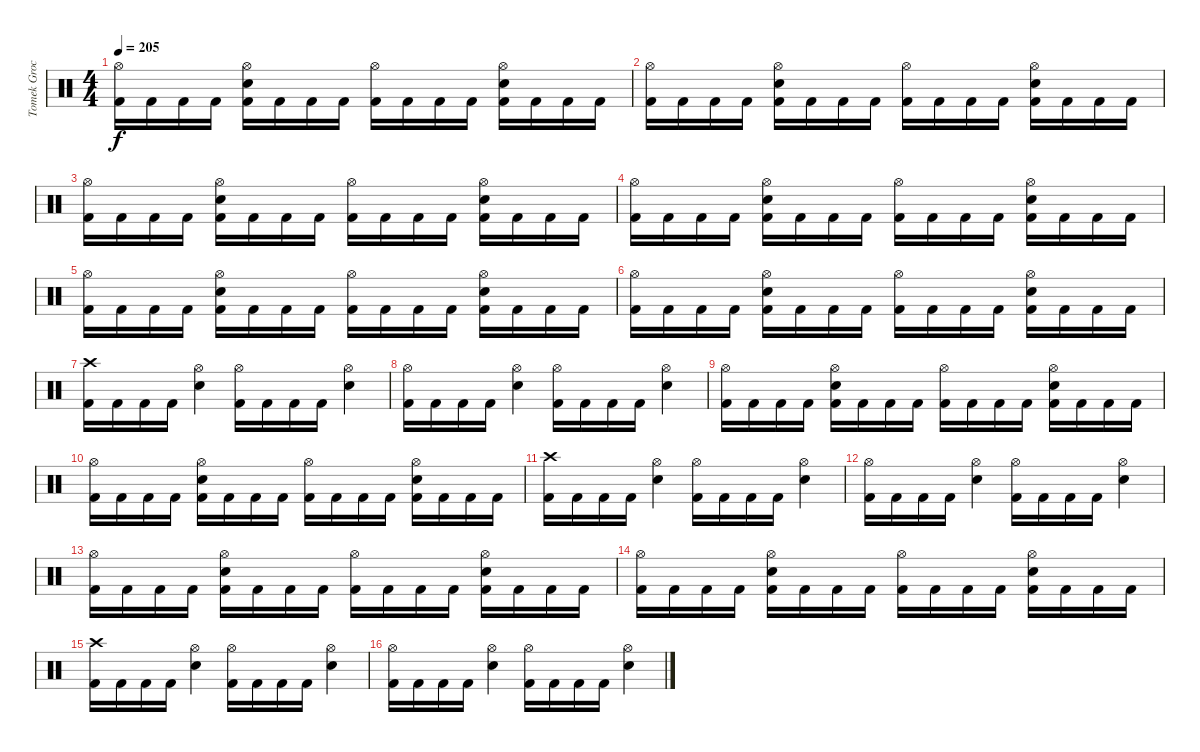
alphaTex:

\track ("Tomek Grochowski" "Tomek Groc") {instrument percussion}
\staff {score}
\articulation defaults
\ts (4 4)
\tempo 205
\clef neutral
\ks c
("Hi-Hat (open)" "Kick (hit) 2").16{dy f} "Kick (hit) 2".16 "Kick (hit) 2".16 "Kick (hit) 2".16 ("Hi-Hat (open)" "Electric Snare (hit)" "Kick (hit) 2").16 "Kick (hit) 2".16 "Kick (hit) 2".16 "Kick (hit) 2".16 ("Hi-Hat (open)" "Kick (hit) 2").16 "Kick (hit) 2".16 "Kick (hit) 2".16 "Kick (hit) 2".16 ("Hi-Hat (open)" "Electric Snare (hit)" "Kick (hit) 2").16 "Kick (hit) 2".16 "Kick (hit) 2".16 "Kick (hit) 2".16 |
("Hi-Hat (open)" "Kick (hit) 2").16 "Kick (hit) 2".16 "Kick (hit) 2".16 "Kick (hit) 2".16 ("Hi-Hat (open)" "Electric Snare (hit)" "Kick (hit) 2").16 "Kick (hit) 2".16 "Kick (hit) 2".16 "Kick (hit) 2".16 ("Hi-Hat (open)" "Kick (hit) 2").16 "Kick (hit) 2".16 "Kick (hit) 2".16 "Kick (hit) 2".16 ("Hi-Hat (open)" "Electric Snare (hit)" "Kick (hit) 2").16 "Kick (hit) 2".16 "Kick (hit) 2".16 "Kick (hit) 2".16 |
("Hi-Hat (open)" "Kick (hit) 2").16 "Kick (hit) 2".16 "Kick (hit) 2".16 "Kick (hit) 2".16 ("Hi-Hat (open)" "Electric Snare (hit)" "Kick (hit) 2").16 "Kick (hit) 2".16 "Kick (hit) 2".16 "Kick (hit) 2".16 ("Hi-Hat (open)" "Kick (hit) 2").16 "Kick (hit) 2".16 "Kick (hit) 2".16 "Kick (hit) 2".16 ("Hi-Hat (open)" "Electric Snare (hit)" "Kick (hit) 2").16 "Kick (hit) 2".16 "Kick (hit) 2".16 "Kick (hit) 2".16 |
("Hi-Hat (open)" "Kick (hit) 2").16 "Kick (hit) 2".16 "Kick (hit) 2".16 "Kick (hit) 2".16 ("Hi-Hat (open)" "Electric Snare (hit)" "Kick (hit) 2").16 "Kick (hit) 2".16 "Kick (hit) 2".16 "Kick (hit) 2".16 ("Hi-Hat (open)" "Kick (hit) 2").16 "Kick (hit) 2".16 "Kick (hit) 2".16 "Kick (hit) 2".16 ("Hi-Hat (open)" "Electric Snare (hit)" "Kick (hit) 2").16 "Kick (hit) 2".16 "Kick (hit) 2".16 "Kick (hit) 2".16 |
("Hi-Hat (open)" "Kick (hit) 2").16 "Kick (hit) 2".16 "Kick (hit) 2".16 "Kick (hit) 2".16 ("Hi-Hat (open)" "Electric Snare (hit)" "Kick (hit) 2").16 "Kick (hit) 2".16 "Kick (hit) 2".16 "Kick (hit) 2".16 ("Hi-Hat (open)" "Kick (hit) 2").16 "Kick (hit) 2".16 "Kick (hit) 2".16 "Kick (hit) 2".16 ("Hi-Hat (open)" "Electric Snare (hit)" "Kick (hit) 2").16 "Kick (hit) 2".16 "Kick (hit) 2".16 "Kick (hit) 2".16 |
("Hi-Hat (open)" "Kick (hit) 2").16 "Kick (hit) 2".16 "Kick (hit) 2".16 "Kick (hit) 2".16 ("Hi-Hat (open)" "Electric Snare (hit)" "Kick (hit) 2").16 "Kick (hit) 2".16 "Kick (hit) 2".16 "Kick (hit) 2".16 ("Hi-Hat (open)" "Kick (hit) 2").16 "Kick (hit) 2".16 "Kick (hit) 2".16 "Kick (hit) 2".16 ("Hi-Hat (open)" "Electric Snare (hit)" "Kick (hit) 2").16 "Kick (hit) 2".16 "Kick (hit) 2".16 "Kick (hit) 2".16 |
("Crash high (hit)" "Kick (hit) 2").16 "Kick (hit) 2".16 "Kick (hit) 2".16 "Kick (hit) 2".16 ("Hi-Hat (open)" "Electric Snare (hit)").4 ("Hi-Hat (open)" "Kick (hit) 2").16 "Kick (hit) 2".16 "Kick (hit) 2".16 "Kick (hit) 2".16 ("Hi-Hat (open)" "Electric Snare (hit)").4 |
("Hi-Hat (open)" "Kick (hit) 2").16 "Kick (hit) 2".16 "Kick (hit) 2".16 "Kick (hit) 2".16 ("Hi-Hat (open)" "Electric Snare (hit)").4 ("Hi-Hat (open)" "Kick (hit) 2").16 "Kick (hit) 2".16 "Kick (hit) 2".16 "Kick (hit) 2".16 ("Hi-Hat (open)" "Electric Snare (hit)").4 |
("Hi-Hat (open)" "Kick (hit) 2").16 "Kick (hit) 2".16 "Kick (hit) 2".16 "Kick (hit) 2".16 ("Hi-Hat (open)" "Electric Snare (hit)" "Kick (hit) 2").16 "Kick (hit) 2".16 "Kick (hit) 2".16 "Kick (hit) 2".16 ("Hi-Hat (open)" "Kick (hit) 2").16 "Kick (hit) 2".16 "Kick (hit) 2".16 "Kick (hit) 2".16 ("Hi-Hat (open)" "Electric Snare (hit)" "Kick (hit) 2").16 "Kick (hit) 2".16 "Kick (hit) 2".16 "Kick (hit) 2".16 |
("Hi-Hat (open)" "Kick (hit) 2").16 "Kick (hit) 2".16 "Kick (hit) 2".16 "Kick (hit) 2".16 ("Hi-Hat (open)" "Electric Snare (hit)" "Kick (hit) 2").16 "Kick (hit) 2".16 "Kick (hit) 2".16 "Kick (hit) 2".16 ("Hi-Hat (open)" "Kick (hit) 2").16 "Kick (hit) 2".16 "Kick (hit) 2".16 "Kick (hit) 2".16 ("Hi-Hat (open)" "Electric Snare (hit)" "Kick (hit) 2").16 "Kick (hit) 2".16 "Kick (hit) 2".16 "Kick (hit) 2".16 |
("Crash high (hit)" "Kick (hit) 2").16 "Kick (hit) 2".16 "Kick (hit) 2".16 "Kick (hit) 2".16 ("Hi-Hat (open)" "Electric Snare (hit)").4 ("Hi-Hat (open)" "Kick (hit) 2").16 "Kick (hit) 2".16 "Kick (hit) 2".16 "Kick (hit) 2".16 ("Hi-Hat (open)" "Electric Snare (hit)").4 |
("Hi-Hat (open)" "Kick (hit) 2").16 "Kick (hit) 2".16 "Kick (hit) 2".16 "Kick (hit) 2".16 ("Hi-Hat (open)" "Electric Snare (hit)").4 ("Hi-Hat (open)" "Kick (hit) 2").16 "Kick (hit) 2".16 "Kick (hit) 2".16 "Kick (hit) 2".16 ("Hi-Hat (open)" "Electric Snare (hit)").4 |
("Hi-Hat (open)" "Kick (hit) 2").16 "Kick (hit) 2".16 "Kick (hit) 2".16 "Kick (hit) 2".16 ("Hi-Hat (open)" "Electric Snare (hit)" "Kick (hit) 2").16 "Kick (hit) 2".16 "Kick (hit) 2".16 "Kick (hit) 2".16 ("Hi-Hat (open)" "Kick (hit) 2").16 "Kick (hit) 2".16 "Kick (hit) 2".16 "Kick (hit) 2".16 ("Hi-Hat (open)" "Electric Snare (hit)" "Kick (hit) 2").16 "Kick (hit) 2".16 "Kick (hit) 2".16 "Kick (hit) 2".16 |
("Hi-Hat (open)" "Kick (hit) 2").16 "Kick (hit) 2".16 "Kick (hit) 2".16 "Kick (hit) 2".16 ("Hi-Hat (open)" "Electric Snare (hit)" "Kick (hit) 2").16 "Kick (hit) 2".16 "Kick (hit) 2".16 "Kick (hit) 2".16 ("Hi-Hat (open)" "Kick (hit) 2").16 "Kick (hit) 2".16 "Kick (hit) 2".16 "Kick (hit) 2".16 ("Hi-Hat (open)" "Electric Snare (hit)" "Kick (hit) 2").16 "Kick (hit) 2".16 "Kick (hit) 2".16 "Kick (hit) 2".16 |
("Crash high (hit)" "Kick (hit) 2").16 "Kick (hit) 2".16 "Kick (hit) 2".16 "Kick (hit) 2".16 ("Hi-Hat (open)" "Electric Snare (hit)").4 ("Hi-Hat (open)" "Kick (hit) 2").16 "Kick (hit) 2".16 "Kick (hit) 2".16 "Kick (hit) 2".16 ("Hi-Hat (open)" "Electric Snare (hit)").4 |
("Hi-Hat (open)" "Kick (hit) 2").16 "Kick (hit) 2".16 "Kick (hit) 2".16 "Kick (hit) 2".16 ("Hi-Hat (open)" "Electric Snare (hit)").4 ("Hi-Hat (open)" "Kick (hit) 2").16 "Kick (hit) 2".16 "Kick (hit) 2".16 "Kick (hit) 2".16 ("Hi-Hat (open)" "Electric Snare (hit)").4
